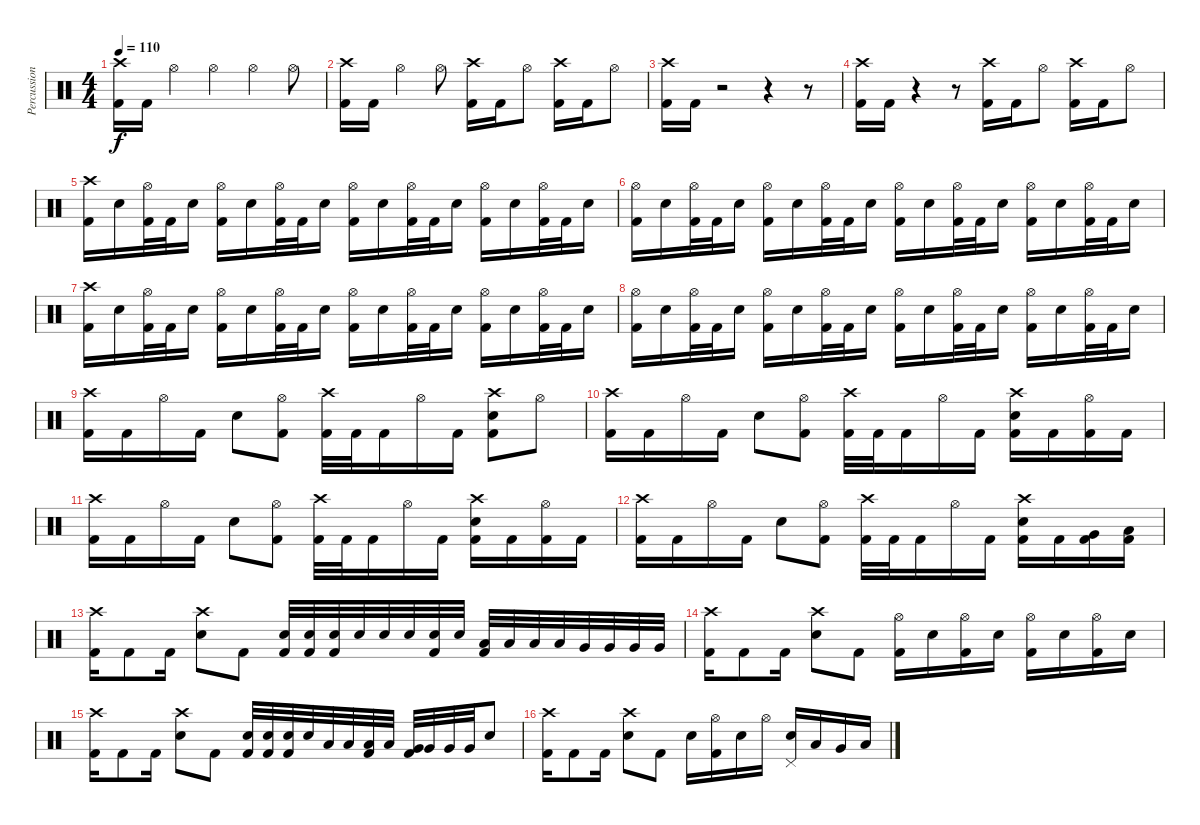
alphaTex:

\track ("Percussion" "Percussion") {instrument percussion}
\staff {score}
\articulation defaults
\ts (4 4)
\tempo 110
\clef neutral
\ks c
("Crash high (hit)" "Kick (hit) 2").16{dy f} "Kick (hit) 2".16 "Hi-Hat (open)".4 "Hi-Hat (open)".4 "Hi-Hat (open)".4 "Hi-Hat (open)".8 |
("Crash high (hit)" "Kick (hit) 2").16 "Kick (hit) 2".16 "Hi-Hat (open)".4 "Hi-Hat (open)".8 ("Crash high (hit)" "Kick (hit) 2").16 "Kick (hit) 2".16 "Hi-Hat (open)".8 ("Crash high (hit)" "Kick (hit) 2").16 "Kick (hit) 2".16 "Hi-Hat (open)".8 |
("Crash high (hit)" "Kick (hit) 2").16 "Kick (hit) 2".16 r.2 r.4 r.8 |
("Crash high (hit)" "Kick (hit) 2").16 "Kick (hit) 2".16 r.4 r.8 ("Crash high (hit)" "Kick (hit) 2").16 "Kick (hit) 2".16 "Hi-Hat (open)".8 ("Crash high (hit)" "Kick (hit) 2").16 "Kick (hit) 2".16 "Hi-Hat (open)".8 |
("Crash high (hit)" "Kick (hit) 2").16 "Electric Snare (hit)".16 ("Hi-Hat (open)" "Kick (hit) 2").32 "Kick (hit) 2".32 "Electric Snare (hit)".16 ("Hi-Hat (open)" "Kick (hit) 2").16 "Electric Snare (hit)".16 ("Hi-Hat (open)" "Kick (hit) 2").32 "Kick (hit) 2".32 "Electric Snare (hit)".16 ("Hi-Hat (open)" "Kick (hit) 2").16 "Electric Snare (hit)".16 ("Hi-Hat (open)" "Kick (hit) 2").32 "Kick (hit) 2".32 "Electric Snare (hit)".16 ("Hi-Hat (open)" "Kick (hit) 2").16 "Electric Snare (hit)".16 ("Hi-Hat (open)" "Kick (hit) 2").32 "Kick (hit) 2".32 "Electric Snare (hit)".16 |
("Hi-Hat (open)" "Kick (hit) 2").16 "Electric Snare (hit)".16 ("Hi-Hat (open)" "Kick (hit) 2").32 "Kick (hit) 2".32 "Electric Snare (hit)".16 ("Hi-Hat (open)" "Kick (hit) 2").16 "Electric Snare (hit)".16 ("Hi-Hat (open)" "Kick (hit) 2").32 "Kick (hit) 2".32 "Electric Snare (hit)".16 ("Hi-Hat (open)" "Kick (hit) 2").16 "Electric Snare (hit)".16 ("Hi-Hat (open)" "Kick (hit) 2").32 "Kick (hit) 2".32 "Electric Snare (hit)".16 ("Hi-Hat (open)" "Kick (hit) 2").16 "Electric Snare (hit)".16 ("Hi-Hat (open)" "Kick (hit) 2").32 "Kick (hit) 2".32 "Electric Snare (hit)".16 |
("Crash high (hit)" "Kick (hit) 2").16 "Electric Snare (hit)".16 ("Hi-Hat (open)" "Kick (hit) 2").32 "Kick (hit) 2".32 "Electric Snare (hit)".16 ("Hi-Hat (open)" "Kick (hit) 2").16 "Electric Snare (hit)".16 ("Hi-Hat (open)" "Kick (hit) 2").32 "Kick (hit) 2".32 "Electric Snare (hit)".16 ("Hi-Hat (open)" "Kick (hit) 2").16 "Electric Snare (hit)".16 ("Hi-Hat (open)" "Kick (hit) 2").32 "Kick (hit) 2".32 "Electric Snare (hit)".16 ("Hi-Hat (open)" "Kick (hit) 2").16 "Electric Snare (hit)".16 ("Hi-Hat (open)" "Kick (hit) 2").32 "Kick (hit) 2".32 "Electric Snare (hit)".16 |
("Hi-Hat (open)" "Kick (hit) 2").16 "Electric Snare (hit)".16 ("Hi-Hat (open)" "Kick (hit) 2").32 "Kick (hit) 2".32 "Electric Snare (hit)".16 ("Hi-Hat (open)" "Kick (hit) 2").16 "Electric Snare (hit)".16 ("Hi-Hat (open)" "Kick (hit) 2").32 "Kick (hit) 2".32 "Electric Snare (hit)".16 ("Hi-Hat (open)" "Kick (hit) 2").16 "Electric Snare (hit)".16 ("Hi-Hat (open)" "Kick (hit) 2").32 "Kick (hit) 2".32 "Electric Snare (hit)".16 ("Hi-Hat (open)" "Kick (hit) 2").16 "Electric Snare (hit)".16 ("Hi-Hat (open)" "Kick (hit) 2").32 "Kick (hit) 2".32 "Electric Snare (hit)".16 |
("Crash high (hit)" "Kick (hit) 2").16 "Kick (hit) 2".16 "Hi-Hat (open)".16 "Kick (hit) 2".16 "Electric Snare (hit)".8 ("Hi-Hat (open)" "Kick (hit) 2").8 ("Crash high (hit)" "Kick (hit) 2").32 "Kick (hit) 2".32 "Kick (hit) 2".16 "Hi-Hat (open)".16 "Kick (hit) 2".16 ("Crash high (hit)" "Electric Snare (hit)" "Kick (hit) 2").8 "Hi-Hat (open)".8 |
("Crash high (hit)" "Kick (hit) 2").16 "Kick (hit) 2".16 "Hi-Hat (open)".16 "Kick (hit) 2".16 "Electric Snare (hit)".8 ("Hi-Hat (open)" "Kick (hit) 2").8 ("Crash high (hit)" "Kick (hit) 2").32 "Kick (hit) 2".32 "Kick (hit) 2".16 "Hi-Hat (open)".16 "Kick (hit) 2".16 ("Crash high (hit)" "Electric Snare (hit)" "Kick (hit) 2").16 "Kick (hit) 2".16 ("Hi-Hat (open)" "Kick (hit) 2").16 "Kick (hit) 2".16 |
("Crash high (hit)" "Kick (hit) 2").16 "Kick (hit) 2".16 "Hi-Hat (open)".16 "Kick (hit) 2".16 "Electric Snare (hit)".8 ("Hi-Hat (open)" "Kick (hit) 2").8 ("Crash high (hit)" "Kick (hit) 2").32 "Kick (hit) 2".32 "Kick (hit) 2".16 "Hi-Hat (open)".16 "Kick (hit) 2".16 ("Crash high (hit)" "Electric Snare (hit)" "Kick (hit) 2").16 "Kick (hit) 2".16 ("Hi-Hat (open)" "Kick (hit) 2").16 "Kick (hit) 2".16 |
("Crash high (hit)" "Kick (hit) 2").16 "Kick (hit) 2".16 "Hi-Hat (open)".16 "Kick (hit) 2".16 "Electric Snare (hit)".8 ("Hi-Hat (open)" "Kick (hit) 2").8 ("Crash high (hit)" "Kick (hit) 2").32 "Kick (hit) 2".32 "Kick (hit) 2".16 "Hi-Hat (open)".16 "Kick (hit) 2".16 ("Crash high (hit)" "Electric Snare (hit)" "Kick (hit) 2").16 "Kick (hit) 2".16 ("Very Low Tom (hit)" "Kick (hit) 2").16 ("Low Floor Tom (hit)" "Kick (hit) 2").16 |
("Crash high (hit)" "Kick (hit) 2").16 "Kick (hit) 2".8 "Kick (hit) 2".16 ("Crash high (hit)" "Electric Snare (hit)").8 "Kick (hit) 2".8 ("Electric Snare (hit)" "Kick (hit) 2").32 ("Electric Snare (hit)" "Kick (hit) 2").32 ("Electric Snare (hit)" "Kick (hit) 2").32 "Electric Snare (hit)".32 "Electric Snare (hit)".32 "Electric Snare (hit)".32 ("Electric Snare (hit)" "Kick (hit) 2").32 "Electric Snare (hit)".32 ("Low Tom (hit)" "Kick (hit) 2").32 "Low Tom (hit)".32 "Low Tom (hit)".32 "Low Tom (hit)".32 "Very Low Tom (hit)".32 "Very Low Tom (hit)".32 "Very Low Tom (hit)".32 "Very Low Tom (hit)".32 |
("Crash high (hit)" "Kick (hit) 2").16 "Kick (hit) 2".8 "Kick (hit) 2".16 ("Crash high (hit)" "Electric Snare (hit)").8 "Kick (hit) 2".8 ("Hi-Hat (open)" "Kick (hit) 2").16 "Electric Snare (hit)".16 ("Hi-Hat (open)" "Kick (hit) 2").16 "Electric Snare (hit)".16 ("Hi-Hat (open)" "Kick (hit) 2").16 "Electric Snare (hit)".16 ("Hi-Hat (open)" "Kick (hit) 2").16 "Electric Snare (hit)".16 |
("Crash high (hit)" "Kick (hit) 2").16 "Kick (hit) 2".8 "Kick (hit) 2".16 ("Crash high (hit)" "Electric Snare (hit)").8 "Kick (hit) 2".8 ("Electric Snare (hit)" "Kick (hit) 2").32 ("Electric Snare (hit)" "Kick (hit) 2").32 ("Electric Snare (hit)" "Kick (hit) 2").32 "Electric Snare (hit)".32 "Low Tom (hit)".32 "Low Tom (hit)".32 ("Low Tom (hit)" "Kick (hit) 2").32 "Low Tom (hit)".32 ("Very Low Tom (hit)" "Kick (hit) 2").32 "Very Low Tom (hit)".32 "Very Low Tom (hit)".32 "Very Low Tom (hit)".32 "Electric Snare (hit)".8 |
("Crash high (hit)" "Kick (hit) 2").16 "Kick (hit) 2".8 "Kick (hit) 2".16 ("Crash high (hit)" "Electric Snare (hit)").8 "Kick (hit) 2".8 "Electric Snare (hit)".16 ("Hi-Hat (open)" "Kick (hit) 2").16 "Electric Snare (hit)".16 "Hi-Hat (open)".16 ("Pedal Hi-Hat (hit)" "Electric Snare (hit)").16 "Low Tom (hit)".16 "Very Low Tom (hit)".16 "Low Floor Tom (hit)".16
